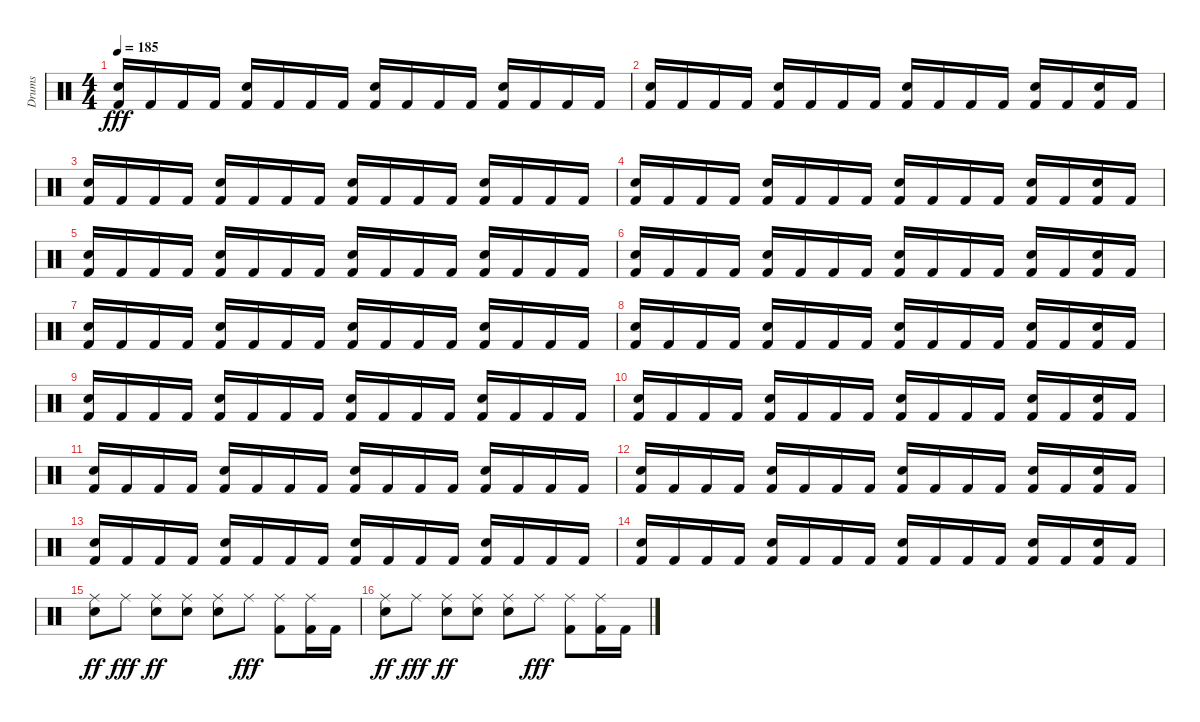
\track ("Drums" "Drums") {instrument percussion}
\staff {score}
\articulation defaults
\ts (4 4)
\tempo 185
\clef neutral
\ks c
("Electric Snare (hit)" "Kick (hit) 2").16{dy fff} "Kick (hit) 2".16 "Kick (hit) 2".16 "Kick (hit) 2".16 ("Electric Snare (hit)" "Kick (hit) 2").16 "Kick (hit) 2".16 "Kick (hit) 2".16 "Kick (hit) 2".16 ("Electric Snare (hit)" "Kick (hit) 2").16 "Kick (hit) 2".16 "Kick (hit) 2".16 "Kick (hit) 2".16 ("Electric Snare (hit)" "Kick (hit) 2").16 "Kick (hit) 2".16 "Kick (hit) 2".16 "Kick (hit) 2".16 |
("Electric Snare (hit)" "Kick (hit) 2").16 "Kick (hit) 2".16 "Kick (hit) 2".16 "Kick (hit) 2".16 ("Electric Snare (hit)" "Kick (hit) 2").16 "Kick (hit) 2".16 "Kick (hit) 2".16 "Kick (hit) 2".16 ("Electric Snare (hit)" "Kick (hit) 2").16 "Kick (hit) 2".16 "Kick (hit) 2".16 "Kick (hit) 2".16 ("Electric Snare (hit)" "Kick (hit) 2").16 "Kick (hit) 2".16 ("Electric Snare (hit)" "Kick (hit) 2").16 "Kick (hit) 2".16 |
("Electric Snare (hit)" "Kick (hit) 2").16 "Kick (hit) 2".16 "Kick (hit) 2".16 "Kick (hit) 2".16 ("Electric Snare (hit)" "Kick (hit) 2").16 "Kick (hit) 2".16 "Kick (hit) 2".16 "Kick (hit) 2".16 ("Electric Snare (hit)" "Kick (hit) 2").16 "Kick (hit) 2".16 "Kick (hit) 2".16 "Kick (hit) 2".16 ("Electric Snare (hit)" "Kick (hit) 2").16 "Kick (hit) 2".16 "Kick (hit) 2".16 "Kick (hit) 2".16 |
("Electric Snare (hit)" "Kick (hit) 2").16 "Kick (hit) 2".16 "Kick (hit) 2".16 "Kick (hit) 2".16 ("Electric Snare (hit)" "Kick (hit) 2").16 "Kick (hit) 2".16 "Kick (hit) 2".16 "Kick (hit) 2".16 ("Electric Snare (hit)" "Kick (hit) 2").16 "Kick (hit) 2".16 "Kick (hit) 2".16 "Kick (hit) 2".16 ("Electric Snare (hit)" "Kick (hit) 2").16 "Kick (hit) 2".16 ("Electric Snare (hit)" "Kick (hit) 2").16 "Kick (hit) 2".16 |
("Electric Snare (hit)" "Kick (hit) 2").16 "Kick (hit) 2".16 "Kick (hit) 2".16 "Kick (hit) 2".16 ("Electric Snare (hit)" "Kick (hit) 2").16 "Kick (hit) 2".16 "Kick (hit) 2".16 "Kick (hit) 2".16 ("Electric Snare (hit)" "Kick (hit) 2").16 "Kick (hit) 2".16 "Kick (hit) 2".16 "Kick (hit) 2".16 ("Electric Snare (hit)" "Kick (hit) 2").16 "Kick (hit) 2".16 "Kick (hit) 2".16 "Kick (hit) 2".16 |
("Electric Snare (hit)" "Kick (hit) 2").16 "Kick (hit) 2".16 "Kick (hit) 2".16 "Kick (hit) 2".16 ("Electric Snare (hit)" "Kick (hit) 2").16 "Kick (hit) 2".16 "Kick (hit) 2".16 "Kick (hit) 2".16 ("Electric Snare (hit)" "Kick (hit) 2").16 "Kick (hit) 2".16 "Kick (hit) 2".16 "Kick (hit) 2".16 ("Electric Snare (hit)" "Kick (hit) 2").16 "Kick (hit) 2".16 ("Electric Snare (hit)" "Kick (hit) 2").16 "Kick (hit) 2".16 |
("Electric Snare (hit)" "Kick (hit) 2").16 "Kick (hit) 2".16 "Kick (hit) 2".16 "Kick (hit) 2".16 ("Electric Snare (hit)" "Kick (hit) 2").16 "Kick (hit) 2".16 "Kick (hit) 2".16 "Kick (hit) 2".16 ("Electric Snare (hit)" "Kick (hit) 2").16 "Kick (hit) 2".16 "Kick (hit) 2".16 "Kick (hit) 2".16 ("Electric Snare (hit)" "Kick (hit) 2").16 "Kick (hit) 2".16 "Kick (hit) 2".16 "Kick (hit) 2".16 |
("Electric Snare (hit)" "Kick (hit) 2").16 "Kick (hit) 2".16 "Kick (hit) 2".16 "Kick (hit) 2".16 ("Electric Snare (hit)" "Kick (hit) 2").16 "Kick (hit) 2".16 "Kick (hit) 2".16 "Kick (hit) 2".16 ("Electric Snare (hit)" "Kick (hit) 2").16 "Kick (hit) 2".16 "Kick (hit) 2".16 "Kick (hit) 2".16 ("Electric Snare (hit)" "Kick (hit) 2").16 "Kick (hit) 2".16 ("Electric Snare (hit)" "Kick (hit) 2").16 "Kick (hit) 2".16 |
("Electric Snare (hit)" "Kick (hit) 2").16 "Kick (hit) 2".16 "Kick (hit) 2".16 "Kick (hit) 2".16 ("Electric Snare (hit)" "Kick (hit) 2").16 "Kick (hit) 2".16 "Kick (hit) 2".16 "Kick (hit) 2".16 ("Electric Snare (hit)" "Kick (hit) 2").16 "Kick (hit) 2".16 "Kick (hit) 2".16 "Kick (hit) 2".16 ("Electric Snare (hit)" "Kick (hit) 2").16 "Kick (hit) 2".16 "Kick (hit) 2".16 "Kick (hit) 2".16 |
("Electric Snare (hit)" "Kick (hit) 2").16 "Kick (hit) 2".16 "Kick (hit) 2".16 "Kick (hit) 2".16 ("Electric Snare (hit)" "Kick (hit) 2").16 "Kick (hit) 2".16 "Kick (hit) 2".16 "Kick (hit) 2".16 ("Electric Snare (hit)" "Kick (hit) 2").16 "Kick (hit) 2".16 "Kick (hit) 2".16 "Kick (hit) 2".16 ("Electric Snare (hit)" "Kick (hit) 2").16 "Kick (hit) 2".16 ("Electric Snare (hit)" "Kick (hit) 2").16 "Kick (hit) 2".16 |
("Electric Snare (hit)" "Kick (hit) 2").16 "Kick (hit) 2".16 "Kick (hit) 2".16 "Kick (hit) 2".16 ("Electric Snare (hit)" "Kick (hit) 2").16 "Kick (hit) 2".16 "Kick (hit) 2".16 "Kick (hit) 2".16 ("Electric Snare (hit)" "Kick (hit) 2").16 "Kick (hit) 2".16 "Kick (hit) 2".16 "Kick (hit) 2".16 ("Electric Snare (hit)" "Kick (hit) 2").16 "Kick (hit) 2".16 "Kick (hit) 2".16 "Kick (hit) 2".16 |
("Electric Snare (hit)" "Kick (hit) 2").16 "Kick (hit) 2".16 "Kick (hit) 2".16 "Kick (hit) 2".16 ("Electric Snare (hit)" "Kick (hit) 2").16 "Kick (hit) 2".16 "Kick (hit) 2".16 "Kick (hit) 2".16 ("Electric Snare (hit)" "Kick (hit) 2").16 "Kick (hit) 2".16 "Kick (hit) 2".16 "Kick (hit) 2".16 ("Electric Snare (hit)" "Kick (hit) 2").16 "Kick (hit) 2".16 ("Electric Snare (hit)" "Kick (hit) 2").16 "Kick (hit) 2".16 |
("Electric Snare (hit)" "Kick (hit) 2").16 "Kick (hit) 2".16 "Kick (hit) 2".16 "Kick (hit) 2".16 ("Electric Snare (hit)" "Kick (hit) 2").16 "Kick (hit) 2".16 "Kick (hit) 2".16 "Kick (hit) 2".16 ("Electric Snare (hit)" "Kick (hit) 2").16 "Kick (hit) 2".16 "Kick (hit) 2".16 "Kick (hit) 2".16 ("Electric Snare (hit)" "Kick (hit) 2").16 "Kick (hit) 2".16 "Kick (hit) 2".16 "Kick (hit) 2".16 |
("Electric Snare (hit)" "Kick (hit) 2").16 "Kick (hit) 2".16 "Kick (hit) 2".16 "Kick (hit) 2".16 ("Electric Snare (hit)" "Kick (hit) 2").16 "Kick (hit) 2".16 "Kick (hit) 2".16 "Kick (hit) 2".16 ("Electric Snare (hit)" "Kick (hit) 2").16 "Kick (hit) 2".16 "Kick (hit) 2".16 "Kick (hit) 2".16 ("Electric Snare (hit)" "Kick (hit) 2").16 "Kick (hit) 2".16 ("Electric Snare (hit)" "Kick (hit) 2").16 "Kick (hit) 2".16 |
("Ride (middle)" "Snare (hit) 2").8{dy ff} "Ride (middle)".8{dy fff} ("Ride (middle)" "Electric Snare (hit)").8{dy ff} ("Ride (middle)" "Electric Snare (hit)").8 ("Ride (middle)" "Snare (hit) 2").8 "Ride (middle)".8{dy fff} ("Ride (middle)" "Kick (hit) 2").8 ("Ride (middle)" "Kick (hit) 2").16 "Kick (hit) 2".16 |
("Ride (middle)" "Snare (hit) 2").8{dy ff} "Ride (middle)".8{dy fff} ("Ride (middle)" "Electric Snare (hit)").8{dy ff} ("Ride (middle)" "Electric Snare (hit)").8 ("Ride (middle)" "Snare (hit) 2").8 "Ride (middle)".8{dy fff} ("Ride (middle)" "Kick (hit) 2").8 ("Ride (middle)" "Kick (hit) 2").16 "Kick (hit) 2".16
